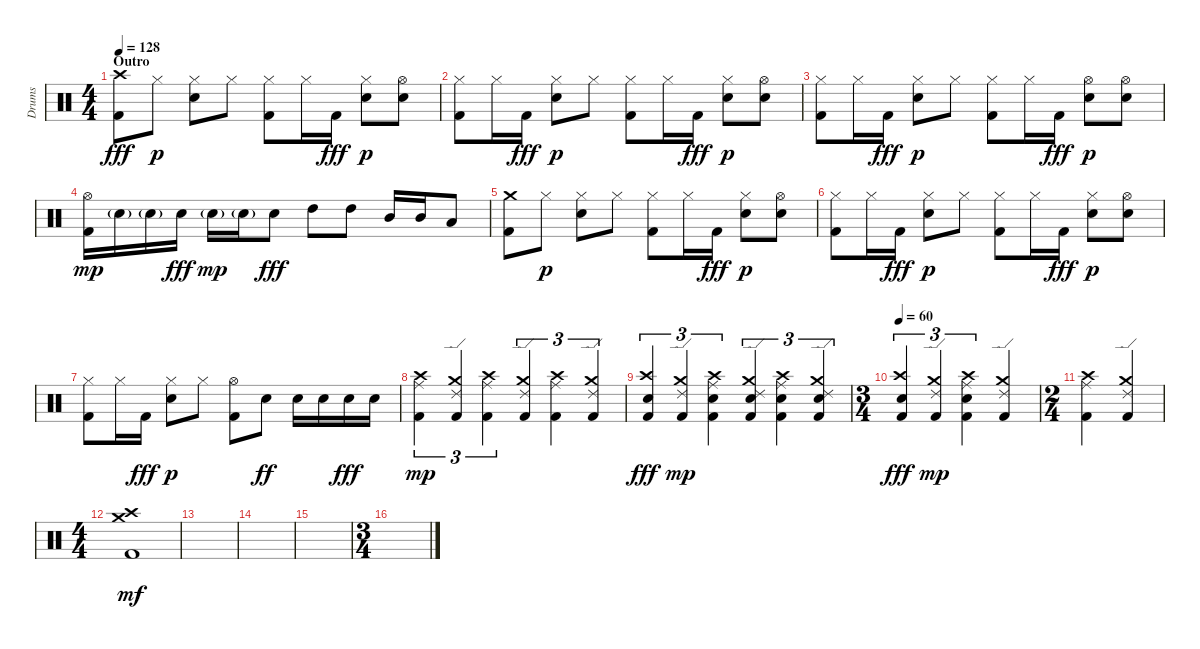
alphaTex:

\track ("Drums" "Drums") {instrument percussion}
\staff {score}
\articulation defaults
\ts (4 4)
\section ("" "Outro")
\tempo 128
\clef neutral
\ks c
("Kick (hit) 2" "Crash high (hit)").8{dy fff} "Hi-Hat (closed)".8{dy p} ("Electric Snare (hit)" "Hi-Hat (closed)").8 "Hi-Hat (closed)".8 ("Kick (hit) 2" "Hi-Hat (closed)").8 "Hi-Hat (closed)".16 "Kick (hit) 2".16{dy fff} ("Electric Snare (hit)" "Hi-Hat (closed)").8{dy p} ("Electric Snare (hit)" "Hi-Hat (open)").8 |
("Kick (hit) 2" "Hi-Hat (closed)").8 "Hi-Hat (closed)".16 "Kick (hit) 2".16{dy fff} ("Electric Snare (hit)" "Hi-Hat (closed)").8{dy p} "Hi-Hat (closed)".8 ("Kick (hit) 2" "Hi-Hat (closed)").8 "Hi-Hat (closed)".16 "Kick (hit) 2".16{dy fff} ("Electric Snare (hit)" "Hi-Hat (closed)").8{dy p} ("Electric Snare (hit)" "Hi-Hat (open)").8 |
("Kick (hit) 2" "Hi-Hat (closed)").8 "Hi-Hat (closed)".16 "Kick (hit) 2".16{dy fff} ("Electric Snare (hit)" "Hi-Hat (closed)").8{dy p} "Hi-Hat (closed)".8 ("Kick (hit) 2" "Hi-Hat (closed)").8 "Hi-Hat (closed)".16 "Kick (hit) 2".16{dy fff} ("Electric Snare (hit)" "Hi-Hat (open)").8{dy p} ("Electric Snare (hit)" "Hi-Hat (open)").8 |
("Kick (hit) 2" "Hi-Hat (open)").16{dy mp} "Electric Snare (hit)"{g}.16 "Electric Snare (hit)"{g}.16 "Electric Snare (hit)".16{dy fff} "Electric Snare (hit)"{g}.16{dy mp} "Electric Snare (hit)"{g}.16 "Electric Snare (hit)".8{dy fff} "High Tom (hit)".8 "High Tom (hit)".8 "Mid Tom (hit)".16 "Mid Tom (hit)".16 "Low Tom (hit)".8 |
("Kick (hit) 2" "Crash medium (hit)").8 "Hi-Hat (closed)".8{dy p} ("Electric Snare (hit)" "Hi-Hat (closed)").8 "Hi-Hat (closed)".8 ("Kick (hit) 2" "Hi-Hat (closed)").8 "Hi-Hat (closed)".16 "Kick (hit) 2".16{dy fff} ("Electric Snare (hit)" "Hi-Hat (closed)").8{dy p} ("Electric Snare (hit)" "Hi-Hat (open)").8 |
("Kick (hit) 2" "Hi-Hat (closed)").8 "Hi-Hat (closed)".16 "Kick (hit) 2".16{dy fff} ("Electric Snare (hit)" "Hi-Hat (closed)").8{dy p} "Hi-Hat (closed)".8 ("Kick (hit) 2" "Hi-Hat (closed)").8 "Hi-Hat (closed)".16 "Kick (hit) 2".16{dy fff} ("Electric Snare (hit)" "Hi-Hat (closed)").8{dy p} ("Electric Snare (hit)" "Hi-Hat (open)").8 |
("Kick (hit) 2" "Hi-Hat (closed)").8 "Hi-Hat (closed)".16 "Kick (hit) 2".16{dy fff} ("Electric Snare (hit)" "Hi-Hat (closed)").8{dy p} "Hi-Hat (closed)".8 ("Kick (hit) 2" "Hi-Hat (open)").8 "Electric Snare (hit)".8{dy ff} "Electric Snare (hit)".16 "Electric Snare (hit)".16 "Electric Snare (hit)".16{dy fff} "Electric Snare (hit)".16 |
("Kick (hit) 2" "Ride (middle)" "Crash high (hit)").4{tu (3 2) dy mp} ("Kick (hit) 2" "Ride (edge) 2" "Crash medium (hit)").4{tu (3 2)} ("Kick (hit) 2" "Ride (middle)" "Crash high (hit)").4{tu (3 2)} ("Kick (hit) 2" "Ride (edge) 2" "Crash medium (hit)").4{tu (3 2)} ("Kick (hit) 2" "Ride (middle)" "Crash high (hit)").4{tu (3 2)} ("Kick (hit) 2" "Ride (edge) 2" "Crash medium (hit)").4{tu (3 2)} |
("Kick (hit) 2" "Electric Snare (hit)" "Crash high (hit)").4{tu (3 2) dy fff} ("Kick (hit) 2" "Ride (edge) 2" "Crash medium (hit)").4{tu (3 2) dy mp} ("Kick (hit) 2" "Electric Snare (hit)" "Ride (middle)" "Crash high (hit)").4{tu (3 2)} ("Kick (hit) 2" "Electric Snare (hit)" "Ride (edge) 2" "Crash medium (hit)").4{tu (3 2)} ("Kick (hit) 2" "Electric Snare (hit)" "Ride (middle)" "Crash high (hit)").4{tu (3 2)} ("Kick (hit) 2" "Electric Snare (hit)" "Ride (edge) 2" "Crash medium (hit)").4{tu (3 2)} |
\ts (3 4)
\tempo 60
("Kick (hit) 2" "Electric Snare (hit)" "Crash high (hit)").4{tu (3 2) dy fff} ("Kick (hit) 2" "Ride (edge) 2" "Crash medium (hit)").4{tu (3 2) dy mp} ("Kick (hit) 2" "Electric Snare (hit)" "Ride (middle)" "Crash high (hit)").4{tu (3 2)} ("Kick (hit) 2" "Ride (edge) 2" "Crash medium (hit)").4 |
\ts (2 4)
("Kick (hit) 2" "Ride (middle)" "Crash high (hit)").4 ("Kick (hit) 2" "Ride (edge) 2" "Crash medium (hit)").4 |
\ts (4 4)
("Kick (hit) 2" "Crash medium (hit)" "Crash high (hit)").1{dy mf} |
|
|
|
\ts (3 4)
